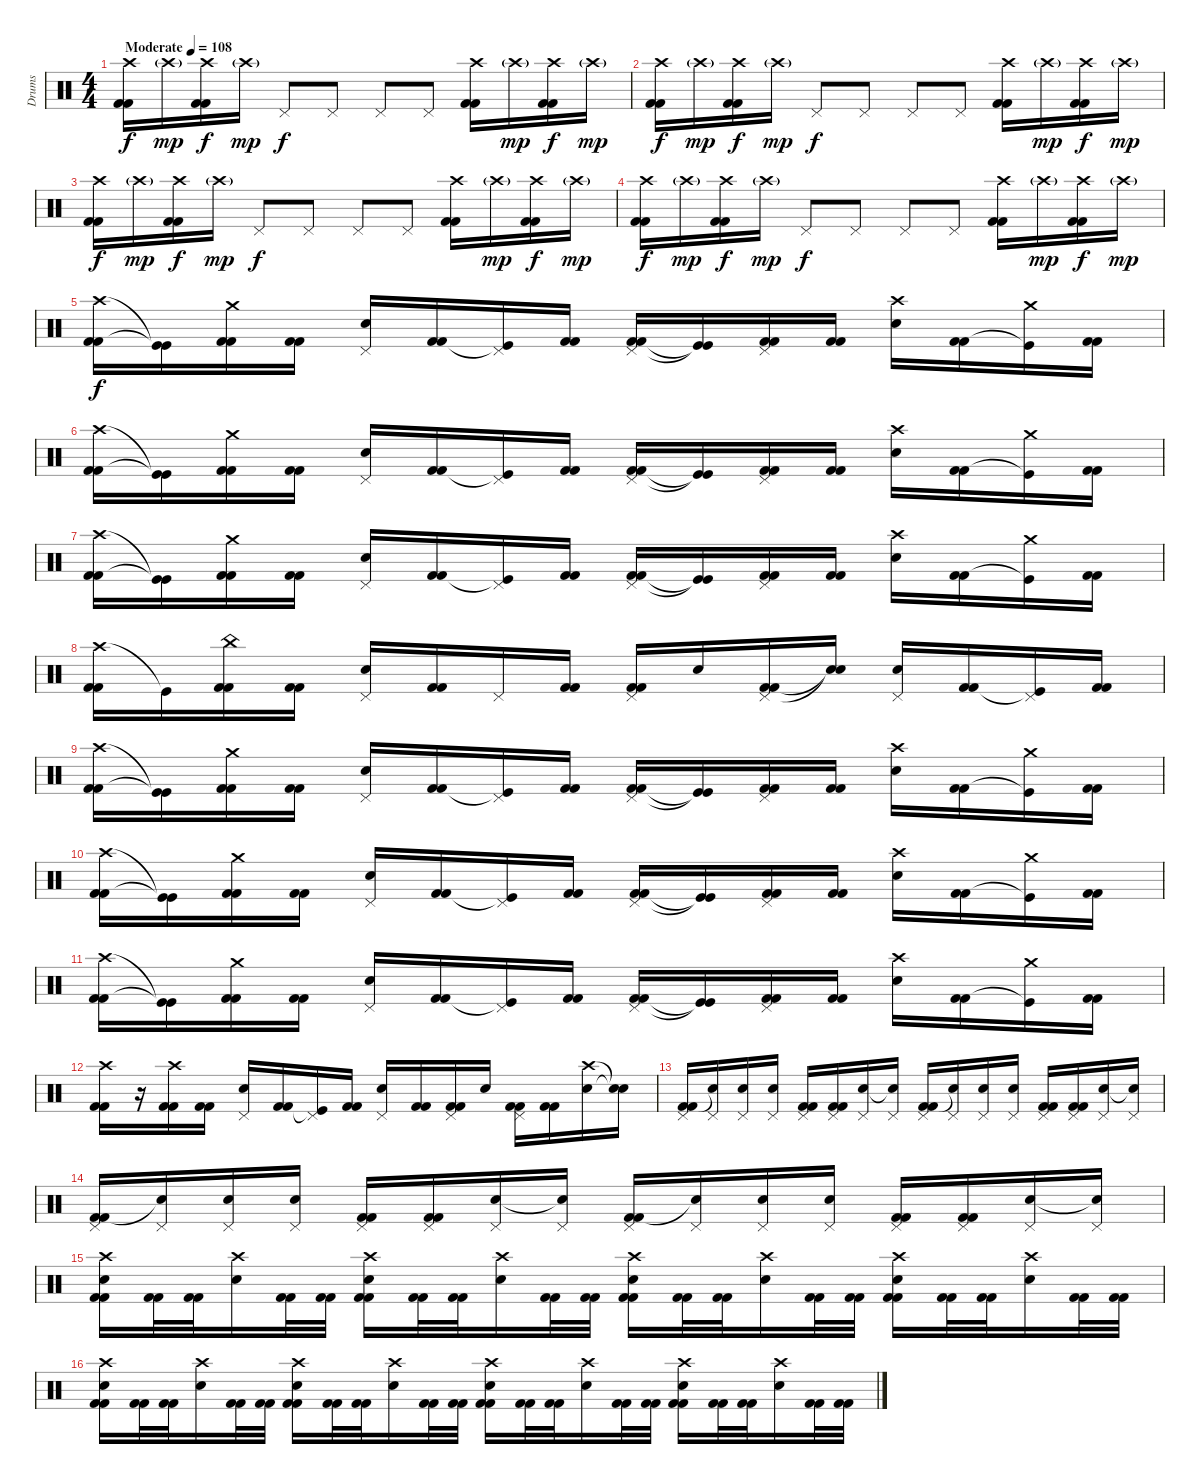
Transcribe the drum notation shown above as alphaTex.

\track ("Drums" "Drums") {instrument percussion}
\staff {score}
\articulation defaults
\ts (4 4)
\tempo (108 "Moderate")
\clef neutral
\ks c
("Crash high (hit)" "Kick (hit) 2" "Kick (hit) 2").16{dy f} "Crash high (hit)"{g}.16{dy mp} ("Crash high (hit)" "Kick (hit) 2" "Kick (hit) 2").16{dy f} "Crash high (hit)"{g}.16{dy mp} "Pedal Hi-Hat (hit)".8{dy f} "Pedal Hi-Hat (hit)".8 "Pedal Hi-Hat (hit)".8 "Pedal Hi-Hat (hit)".8 ("Crash high (hit)" "Kick (hit) 2" "Kick (hit) 2").16 "Crash high (hit)"{g}.16{dy mp} ("Crash high (hit)" "Kick (hit) 2" "Kick (hit) 2").16{dy f} "Crash high (hit)"{g}.16{dy mp} |
("Crash high (hit)" "Kick (hit) 2" "Kick (hit) 2").16{dy f} "Crash high (hit)"{g}.16{dy mp} ("Crash high (hit)" "Kick (hit) 2" "Kick (hit) 2").16{dy f} "Crash high (hit)"{g}.16{dy mp} "Pedal Hi-Hat (hit)".8{dy f} "Pedal Hi-Hat (hit)".8 "Pedal Hi-Hat (hit)".8 "Pedal Hi-Hat (hit)".8 ("Crash high (hit)" "Kick (hit) 2" "Kick (hit) 2").16 "Crash high (hit)"{g}.16{dy mp} ("Crash high (hit)" "Kick (hit) 2" "Kick (hit) 2").16{dy f} "Crash high (hit)"{g}.16{dy mp} |
("Crash high (hit)" "Kick (hit) 2" "Kick (hit) 2").16{dy f} "Crash high (hit)"{g}.16{dy mp} ("Crash high (hit)" "Kick (hit) 2" "Kick (hit) 2").16{dy f} "Crash high (hit)"{g}.16{dy mp} "Pedal Hi-Hat (hit)".8{dy f} "Pedal Hi-Hat (hit)".8 "Pedal Hi-Hat (hit)".8 "Pedal Hi-Hat (hit)".8 ("Crash high (hit)" "Kick (hit) 2" "Kick (hit) 2").16 "Crash high (hit)"{g}.16{dy mp} ("Crash high (hit)" "Kick (hit) 2" "Kick (hit) 2").16{dy f} "Crash high (hit)"{g}.16{dy mp} |
("Crash high (hit)" "Kick (hit) 2" "Kick (hit) 2").16{dy f} "Crash high (hit)"{g}.16{dy mp} ("Crash high (hit)" "Kick (hit) 2" "Kick (hit) 2").16{dy f} "Crash high (hit)"{g}.16{dy mp} "Pedal Hi-Hat (hit)".8{dy f} "Pedal Hi-Hat (hit)".8 "Pedal Hi-Hat (hit)".8 "Pedal Hi-Hat (hit)".8 ("Crash high (hit)" "Kick (hit) 2" "Kick (hit) 2").16 "Crash high (hit)"{g}.16{dy mp} ("Crash high (hit)" "Kick (hit) 2" "Kick (hit) 2").16{dy f} "Crash high (hit)"{g}.16{dy mp} |
("Crash high (hit)" "Kick (hit) 2" "Kick (hit) 2").16{dy f} ("Kick (hit)"{t} "Kick (hit)"{t}).16 ("Crash medium (hit)" "Kick (hit) 2" "Kick (hit) 2").16 ("Kick (hit) 2" "Kick (hit) 2").16 ("Pedal Hi-Hat (hit)" "Electric Snare (hit)").16 ("Kick (hit) 2" "Kick (hit) 2").16 ("Pedal Hi-Hat (hit)" "Kick (hit)"{t}).16 ("Kick (hit) 2" "Kick (hit) 2").16 ("Pedal Hi-Hat (hit)" "Kick (hit) 2" "Kick (hit) 2").16 ("Kick (hit)"{t} "Kick (hit)"{t}).16 ("Pedal Hi-Hat (hit)" "Kick (hit) 2" "Kick (hit) 2").16 ("Kick (hit) 2" "Kick (hit) 2").16 ("Crash high (hit)" "Electric Snare (hit)").16 ("Kick (hit) 2" "Kick (hit) 2").16 ("Crash medium (hit)" "Kick (hit)"{t}).16 ("Kick (hit) 2" "Kick (hit) 2").16 |
("Crash high (hit)" "Kick (hit) 2" "Kick (hit) 2").16 ("Kick (hit)"{t} "Kick (hit)"{t}).16 ("Crash medium (hit)" "Kick (hit) 2" "Kick (hit) 2").16 ("Kick (hit) 2" "Kick (hit) 2").16 ("Pedal Hi-Hat (hit)" "Electric Snare (hit)").16 ("Kick (hit) 2" "Kick (hit) 2").16 ("Pedal Hi-Hat (hit)" "Kick (hit)"{t}).16 ("Kick (hit) 2" "Kick (hit) 2").16 ("Pedal Hi-Hat (hit)" "Kick (hit) 2" "Kick (hit) 2").16 ("Kick (hit)"{t} "Kick (hit)"{t}).16 ("Pedal Hi-Hat (hit)" "Kick (hit) 2" "Kick (hit) 2").16 ("Kick (hit) 2" "Kick (hit) 2").16 ("Crash high (hit)" "Electric Snare (hit)").16 ("Kick (hit) 2" "Kick (hit) 2").16 ("Crash medium (hit)" "Kick (hit)"{t}).16 ("Kick (hit) 2" "Kick (hit) 2").16 |
("Crash high (hit)" "Kick (hit) 2" "Kick (hit) 2").16 ("Kick (hit)"{t} "Kick (hit)"{t}).16 ("Crash medium (hit)" "Kick (hit) 2" "Kick (hit) 2").16 ("Kick (hit) 2" "Kick (hit) 2").16 ("Pedal Hi-Hat (hit)" "Electric Snare (hit)").16 ("Kick (hit) 2" "Kick (hit) 2").16 ("Pedal Hi-Hat (hit)" "Kick (hit)"{t}).16 ("Kick (hit) 2" "Kick (hit) 2").16 ("Pedal Hi-Hat (hit)" "Kick (hit) 2" "Kick (hit) 2").16 ("Kick (hit)"{t} "Kick (hit)"{t}).16 ("Pedal Hi-Hat (hit)" "Kick (hit) 2" "Kick (hit) 2").16 ("Kick (hit) 2" "Kick (hit) 2").16 ("Crash high (hit)" "Electric Snare (hit)").16 ("Kick (hit) 2" "Kick (hit) 2").16 ("Crash medium (hit)" "Kick (hit)"{t}).16 ("Kick (hit) 2" "Kick (hit) 2").16 |
("Crash high (hit)" "Kick (hit) 2" "Kick (hit) 2").16 "Kick (hit)"{t}.16 ("China (hit)" "Kick (hit) 2" "Kick (hit) 2").16 ("Kick (hit) 2" "Kick (hit) 2").16 ("Pedal Hi-Hat (hit)" "Electric Snare (hit)").16 ("Kick (hit) 2" "Kick (hit) 2").16 "Pedal Hi-Hat (hit)".16 ("Kick (hit) 2" "Kick (hit) 2").16 ("Pedal Hi-Hat (hit)" "Kick (hit) 2" "Kick (hit) 2").16 "Electric Snare (hit)".16 ("Pedal Hi-Hat (hit)" "Kick (hit) 2" "Kick (hit) 2").16 ("Snare (hit) 2"{t} "Snare (hit) 2"{t}).16 ("Pedal Hi-Hat (hit)" "Electric Snare (hit)").16 ("Kick (hit) 2" "Kick (hit) 2").16 ("Pedal Hi-Hat (hit)" "Kick (hit)"{t}).16 ("Kick (hit) 2" "Kick (hit) 2").16 |
("Crash high (hit)" "Kick (hit) 2" "Kick (hit) 2").16 ("Kick (hit)"{t} "Kick (hit)"{t}).16 ("Crash medium (hit)" "Kick (hit) 2" "Kick (hit) 2").16 ("Kick (hit) 2" "Kick (hit) 2").16 ("Pedal Hi-Hat (hit)" "Electric Snare (hit)").16 ("Kick (hit) 2" "Kick (hit) 2").16 ("Pedal Hi-Hat (hit)" "Kick (hit)"{t}).16 ("Kick (hit) 2" "Kick (hit) 2").16 ("Pedal Hi-Hat (hit)" "Kick (hit) 2" "Kick (hit) 2").16 ("Kick (hit)"{t} "Kick (hit)"{t}).16 ("Pedal Hi-Hat (hit)" "Kick (hit) 2" "Kick (hit) 2").16 ("Kick (hit) 2" "Kick (hit) 2").16 ("Crash high (hit)" "Electric Snare (hit)").16 ("Kick (hit) 2" "Kick (hit) 2").16 ("Crash medium (hit)" "Kick (hit)"{t}).16 ("Kick (hit) 2" "Kick (hit) 2").16 |
("Crash high (hit)" "Kick (hit) 2" "Kick (hit) 2").16 ("Kick (hit)"{t} "Kick (hit)"{t}).16 ("Crash medium (hit)" "Kick (hit) 2" "Kick (hit) 2").16 ("Kick (hit) 2" "Kick (hit) 2").16 ("Pedal Hi-Hat (hit)" "Electric Snare (hit)").16 ("Kick (hit) 2" "Kick (hit) 2").16 ("Pedal Hi-Hat (hit)" "Kick (hit)"{t}).16 ("Kick (hit) 2" "Kick (hit) 2").16 ("Pedal Hi-Hat (hit)" "Kick (hit) 2" "Kick (hit) 2").16 ("Kick (hit)"{t} "Kick (hit)"{t}).16 ("Pedal Hi-Hat (hit)" "Kick (hit) 2" "Kick (hit) 2").16 ("Kick (hit) 2" "Kick (hit) 2").16 ("Crash high (hit)" "Electric Snare (hit)").16 ("Kick (hit) 2" "Kick (hit) 2").16 ("Crash medium (hit)" "Kick (hit)"{t}).16 ("Kick (hit) 2" "Kick (hit) 2").16 |
("Crash high (hit)" "Kick (hit) 2" "Kick (hit) 2").16 ("Kick (hit)"{t} "Kick (hit)"{t}).16 ("Crash medium (hit)" "Kick (hit) 2" "Kick (hit) 2").16 ("Kick (hit) 2" "Kick (hit) 2").16 ("Pedal Hi-Hat (hit)" "Electric Snare (hit)").16 ("Kick (hit) 2" "Kick (hit) 2").16 ("Pedal Hi-Hat (hit)" "Kick (hit)"{t}).16 ("Kick (hit) 2" "Kick (hit) 2").16 ("Pedal Hi-Hat (hit)" "Kick (hit) 2" "Kick (hit) 2").16 ("Kick (hit)"{t} "Kick (hit)"{t}).16 ("Pedal Hi-Hat (hit)" "Kick (hit) 2" "Kick (hit) 2").16 ("Kick (hit) 2" "Kick (hit) 2").16 ("Crash high (hit)" "Electric Snare (hit)").16 ("Kick (hit) 2" "Kick (hit) 2").16 ("Crash medium (hit)" "Kick (hit)"{t}).16 ("Kick (hit) 2" "Kick (hit) 2").16 |
("Crash high (hit)" "Kick (hit) 2" "Kick (hit) 2").16 r.16 ("Crash high (hit)" "Kick (hit) 2" "Kick (hit) 2").16 ("Kick (hit) 2" "Kick (hit) 2").16 ("Pedal Hi-Hat (hit)" "Electric Snare (hit)").16 ("Kick (hit) 2" "Kick (hit) 2").16 ("Pedal Hi-Hat (hit)" "Kick (hit)"{t}).16 ("Kick (hit) 2" "Kick (hit) 2").16 ("Pedal Hi-Hat (hit)" "Electric Snare (hit)").16 ("Kick (hit) 2" "Kick (hit) 2").16 ("Pedal Hi-Hat (hit)" "Kick (hit) 2" "Kick (hit) 2").16 "Electric Snare (hit)".16 ("Pedal Hi-Hat (hit)" "Kick (hit) 2" "Kick (hit) 2").16 ("Kick (hit) 2" "Kick (hit) 2").16 ("Crash high (hit)" "Electric Snare (hit)").16 ("Snare (hit) 2"{t} "Snare (hit) 2"{t}).16 |
("Pedal Hi-Hat (hit)" "Kick (hit) 2" "Kick (hit) 2").16 ("Pedal Hi-Hat (hit)" "Snare (hit) 2"{t}).16 ("Pedal Hi-Hat (hit)" "Electric Snare (hit)").16 ("Pedal Hi-Hat (hit)" "Electric Snare (hit)").16 ("Pedal Hi-Hat (hit)" "Kick (hit) 2" "Kick (hit) 2").16 ("Pedal Hi-Hat (hit)" "Kick (hit) 2" "Kick (hit) 2").16 ("Pedal Hi-Hat (hit)" "Electric Snare (hit)").16 ("Pedal Hi-Hat (hit)" "Snare (hit) 2"{t}).16 ("Pedal Hi-Hat (hit)" "Kick (hit) 2" "Kick (hit) 2").16 ("Pedal Hi-Hat (hit)" "Snare (hit) 2"{t}).16 ("Pedal Hi-Hat (hit)" "Electric Snare (hit)").16 ("Pedal Hi-Hat (hit)" "Electric Snare (hit)").16 ("Pedal Hi-Hat (hit)" "Kick (hit) 2" "Kick (hit) 2").16 ("Pedal Hi-Hat (hit)" "Kick (hit) 2" "Kick (hit) 2").16 ("Pedal Hi-Hat (hit)" "Electric Snare (hit)").16 ("Pedal Hi-Hat (hit)" "Snare (hit)"{t}).16 |
("Pedal Hi-Hat (hit)" "Kick (hit) 2" "Kick (hit) 2").16 ("Pedal Hi-Hat (hit)" "Snare (hit) 2"{t}).16 ("Pedal Hi-Hat (hit)" "Electric Snare (hit)").16 ("Pedal Hi-Hat (hit)" "Electric Snare (hit)").16 ("Pedal Hi-Hat (hit)" "Kick (hit) 2" "Kick (hit) 2").16 ("Pedal Hi-Hat (hit)" "Kick (hit) 2" "Kick (hit) 2").16 ("Pedal Hi-Hat (hit)" "Electric Snare (hit)").16 ("Pedal Hi-Hat (hit)" "Snare (hit) 2"{t}).16 ("Pedal Hi-Hat (hit)" "Kick (hit) 2" "Kick (hit) 2").16 ("Pedal Hi-Hat (hit)" "Snare (hit) 2"{t}).16 ("Pedal Hi-Hat (hit)" "Electric Snare (hit)").16 ("Pedal Hi-Hat (hit)" "Electric Snare (hit)").16 ("Pedal Hi-Hat (hit)" "Kick (hit) 2" "Kick (hit) 2").16 ("Pedal Hi-Hat (hit)" "Kick (hit) 2" "Kick (hit) 2").16 ("Pedal Hi-Hat (hit)" "Electric Snare (hit)").16 ("Pedal Hi-Hat (hit)" "Snare (hit)"{t}).16 |
("Crash high (hit)" "Electric Snare (hit)" "Kick (hit) 2" "Kick (hit) 2").16 ("Kick (hit) 2" "Kick (hit) 2").32 ("Kick (hit) 2" "Kick (hit) 2").32 ("Crash high (hit)" "Electric Snare (hit)").16 ("Kick (hit) 2" "Kick (hit) 2").32 ("Kick (hit) 2" "Kick (hit) 2").32 ("Crash high (hit)" "Electric Snare (hit)" "Kick (hit) 2" "Kick (hit) 2").16 ("Kick (hit) 2" "Kick (hit) 2").32 ("Kick (hit) 2" "Kick (hit) 2").32 ("Crash high (hit)" "Electric Snare (hit)").16 ("Kick (hit) 2" "Kick (hit) 2").32 ("Kick (hit) 2" "Kick (hit) 2").32 ("Crash high (hit)" "Electric Snare (hit)" "Kick (hit) 2" "Kick (hit) 2").16 ("Kick (hit) 2" "Kick (hit) 2").32 ("Kick (hit) 2" "Kick (hit) 2").32 ("Crash high (hit)" "Electric Snare (hit)").16 ("Kick (hit) 2" "Kick (hit) 2").32 ("Kick (hit) 2" "Kick (hit) 2").32 ("Crash high (hit)" "Electric Snare (hit)" "Kick (hit) 2" "Kick (hit) 2").16 ("Kick (hit) 2" "Kick (hit) 2").32 ("Kick (hit) 2" "Kick (hit) 2").32 ("Crash high (hit)" "Electric Snare (hit)").16 ("Kick (hit) 2" "Kick (hit) 2").32 ("Kick (hit) 2" "Kick (hit) 2").32 |
("Crash high (hit)" "Electric Snare (hit)" "Kick (hit) 2" "Kick (hit) 2").16 ("Kick (hit) 2" "Kick (hit) 2").32 ("Kick (hit) 2" "Kick (hit) 2").32 ("Crash high (hit)" "Electric Snare (hit)").16 ("Kick (hit) 2" "Kick (hit) 2").32 ("Kick (hit) 2" "Kick (hit) 2").32 ("Crash high (hit)" "Electric Snare (hit)" "Kick (hit) 2" "Kick (hit) 2").16 ("Kick (hit) 2" "Kick (hit) 2").32 ("Kick (hit) 2" "Kick (hit) 2").32 ("Crash high (hit)" "Electric Snare (hit)").16 ("Kick (hit) 2" "Kick (hit) 2").32 ("Kick (hit) 2" "Kick (hit) 2").32 ("Crash high (hit)" "Electric Snare (hit)" "Kick (hit) 2" "Kick (hit) 2").16 ("Kick (hit) 2" "Kick (hit) 2").32 ("Kick (hit) 2" "Kick (hit) 2").32 ("Crash high (hit)" "Electric Snare (hit)").16 ("Kick (hit) 2" "Kick (hit) 2").32 ("Kick (hit) 2" "Kick (hit) 2").32 ("Crash high (hit)" "Electric Snare (hit)" "Kick (hit) 2" "Kick (hit) 2").16 ("Kick (hit) 2" "Kick (hit) 2").32 ("Kick (hit) 2" "Kick (hit) 2").32 ("Crash high (hit)" "Electric Snare (hit)").16 ("Kick (hit) 2" "Kick (hit) 2").32 ("Kick (hit) 2" "Kick (hit) 2").32
